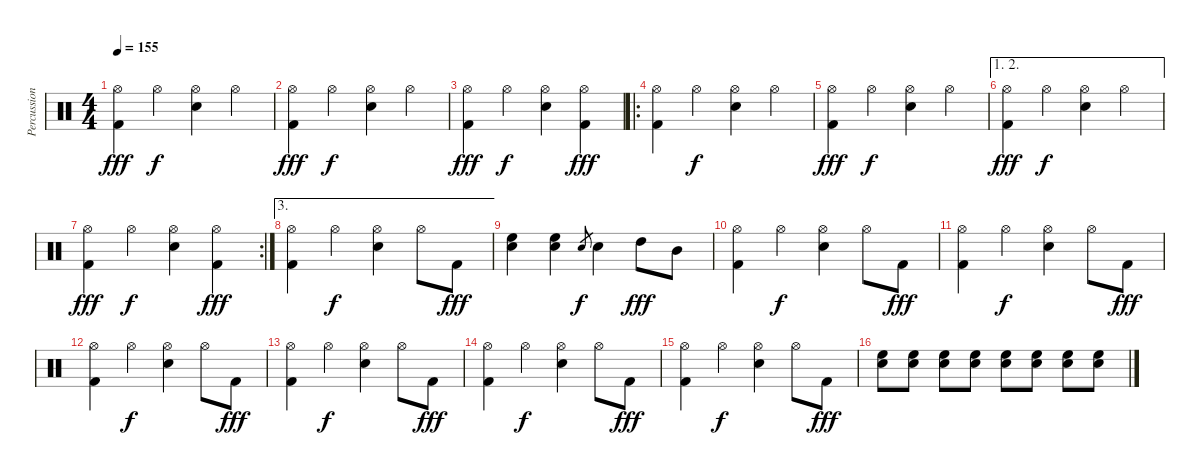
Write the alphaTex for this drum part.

\track ("Percussion" "Percussion") {instrument percussion}
\staff {score}
\articulation defaults
\ts (4 4)
\tempo 155
\clef neutral
\ks c
("Hi-Hat (open)" "Kick (hit) 2").4{dy fff} "Hi-Hat (open)".4{dy f} ("Hi-Hat (open)" "Snare (hit) 2").4 "Hi-Hat (open)".4 |
("Hi-Hat (open)" "Kick (hit) 2").4{dy fff} "Hi-Hat (open)".4{dy f} ("Hi-Hat (open)" "Snare (hit) 2").4 "Hi-Hat (open)".4 |
("Hi-Hat (open)" "Kick (hit) 2").4{dy fff} "Hi-Hat (open)".4{dy f} ("Hi-Hat (open)" "Snare (hit) 2").4 ("Hi-Hat (open)" "Kick (hit) 2").4{dy fff} |
\ro
("Hi-Hat (open)" "Kick (hit) 2").4 "Hi-Hat (open)".4{dy f} ("Hi-Hat (open)" "Snare (hit) 2").4 "Hi-Hat (open)".4 |
("Hi-Hat (open)" "Kick (hit) 2").4{dy fff} "Hi-Hat (open)".4{dy f} ("Hi-Hat (open)" "Snare (hit) 2").4 "Hi-Hat (open)".4 |
\ae (1 2)
("Hi-Hat (open)" "Kick (hit) 2").4{dy fff} "Hi-Hat (open)".4{dy f} ("Hi-Hat (open)" "Snare (hit) 2").4 "Hi-Hat (open)".4 |
\rc 2
("Hi-Hat (open)" "Kick (hit) 2").4{dy fff} "Hi-Hat (open)".4{dy f} ("Hi-Hat (open)" "Snare (hit) 2").4 ("Hi-Hat (open)" "Kick (hit) 2").4{dy fff} |
\ae 3
("Hi-Hat (open)" "Kick (hit) 2").4 "Hi-Hat (open)".4{dy f} ("Hi-Hat (open)" "Snare (hit) 2").4 "Hi-Hat (open)".8 "Kick (hit) 2".8{dy fff} |
("High Floor Tom (hit)" "Snare (hit) 2").4 ("High Floor Tom (hit)" "Snare (hit) 2").4 "Snare (hit) 2".8{gr dy f} "Snare (hit) 2".4 "High Tom (hit)".8{dy fff} "Mid Tom (hit)".8 |
("Hi-Hat (open)" "Kick (hit) 2").4 "Hi-Hat (open)".4{dy f} ("Hi-Hat (open)" "Snare (hit) 2").4 "Hi-Hat (open)".8 "Kick (hit) 2".8{dy fff} |
("Hi-Hat (open)" "Kick (hit) 2").4 "Hi-Hat (open)".4{dy f} ("Hi-Hat (open)" "Snare (hit) 2").4 "Hi-Hat (open)".8 "Kick (hit) 2".8{dy fff} |
("Hi-Hat (open)" "Kick (hit) 2").4 "Hi-Hat (open)".4{dy f} ("Hi-Hat (open)" "Snare (hit) 2").4 "Hi-Hat (open)".8 "Kick (hit) 2".8{dy fff} |
("Hi-Hat (open)" "Kick (hit) 2").4 "Hi-Hat (open)".4{dy f} ("Hi-Hat (open)" "Snare (hit) 2").4 "Hi-Hat (open)".8 "Kick (hit) 2".8{dy fff} |
("Hi-Hat (open)" "Kick (hit) 2").4 "Hi-Hat (open)".4{dy f} ("Hi-Hat (open)" "Snare (hit) 2").4 "Hi-Hat (open)".8 "Kick (hit) 2".8{dy fff} |
("Hi-Hat (open)" "Kick (hit) 2").4 "Hi-Hat (open)".4{dy f} ("Hi-Hat (open)" "Snare (hit) 2").4 "Hi-Hat (open)".8 "Kick (hit) 2".8{dy fff} |
("High Floor Tom (hit)" "Snare (hit) 2").8 ("High Floor Tom (hit)" "Snare (hit) 2").8 ("High Floor Tom (hit)" "Snare (hit) 2").8 ("High Floor Tom (hit)" "Snare (hit) 2").8 ("High Floor Tom (hit)" "Snare (hit) 2").8 ("High Floor Tom (hit)" "Snare (hit) 2").8 ("High Floor Tom (hit)" "Snare (hit) 2").8 ("High Floor Tom (hit)" "Snare (hit) 2").8
